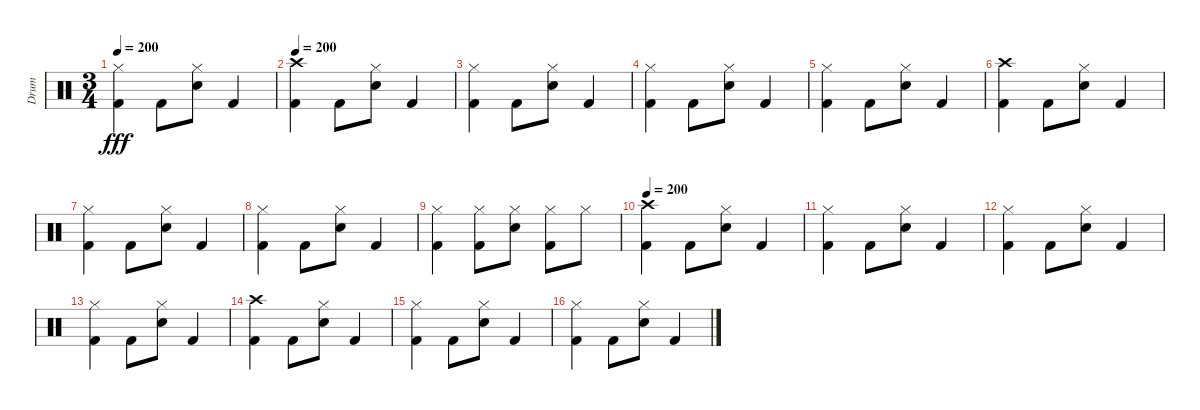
\track ("Drum" "Drum") {instrument percussion}
\staff {score}
\articulation defaults
\ts (3 4)
\tempo 200
\clef neutral
\ks c
("Hi-Hat (closed)" "Kick (hit) 2").4{dy fff} "Kick (hit) 2".8 ("Hi-Hat (closed)" "Snare (hit) 2").8 "Kick (hit) 2".4 |
\tempo 200
("Crash high (hit)" "Kick (hit) 2").4 "Kick (hit) 2".8 ("Hi-Hat (closed)" "Snare (hit) 2").8 "Kick (hit) 2".4 |
("Hi-Hat (closed)" "Kick (hit) 2").4 "Kick (hit) 2".8 ("Hi-Hat (closed)" "Snare (hit) 2").8 "Kick (hit) 2".4 |
("Hi-Hat (closed)" "Kick (hit) 2").4 "Kick (hit) 2".8 ("Hi-Hat (closed)" "Snare (hit) 2").8 "Kick (hit) 2".4 |
("Hi-Hat (closed)" "Kick (hit) 2").4 "Kick (hit) 2".8 ("Hi-Hat (closed)" "Snare (hit) 2").8 "Kick (hit) 2".4 |
("Crash high (hit)" "Kick (hit) 2").4 "Kick (hit) 2".8 ("Hi-Hat (closed)" "Snare (hit) 2").8 "Kick (hit) 2".4 |
("Hi-Hat (closed)" "Kick (hit) 2").4 "Kick (hit) 2".8 ("Hi-Hat (closed)" "Snare (hit) 2").8 "Kick (hit) 2".4 |
("Hi-Hat (closed)" "Kick (hit) 2").4 "Kick (hit) 2".8 ("Hi-Hat (closed)" "Snare (hit) 2").8 "Kick (hit) 2".4 |
("Hi-Hat (closed)" "Kick (hit) 2").4 ("Hi-Hat (closed)" "Kick (hit) 2").8 ("Hi-Hat (closed)" "Snare (hit) 2").8 ("Hi-Hat (closed)" "Kick (hit) 2").8 "Hi-Hat (closed)".8 |
\tempo 200
("Crash high (hit)" "Kick (hit) 2").4 "Kick (hit) 2".8 ("Hi-Hat (closed)" "Snare (hit) 2").8 "Kick (hit) 2".4 |
("Hi-Hat (closed)" "Kick (hit) 2").4 "Kick (hit) 2".8 ("Hi-Hat (closed)" "Snare (hit) 2").8 "Kick (hit) 2".4 |
("Hi-Hat (closed)" "Kick (hit) 2").4 "Kick (hit) 2".8 ("Hi-Hat (closed)" "Snare (hit) 2").8 "Kick (hit) 2".4 |
("Hi-Hat (closed)" "Kick (hit) 2").4 "Kick (hit) 2".8 ("Hi-Hat (closed)" "Snare (hit) 2").8 "Kick (hit) 2".4 |
("Crash high (hit)" "Kick (hit) 2").4 "Kick (hit) 2".8 ("Hi-Hat (closed)" "Snare (hit) 2").8 "Kick (hit) 2".4 |
("Hi-Hat (closed)" "Kick (hit) 2").4 "Kick (hit) 2".8 ("Hi-Hat (closed)" "Snare (hit) 2").8 "Kick (hit) 2".4 |
("Hi-Hat (closed)" "Kick (hit) 2").4 "Kick (hit) 2".8 ("Hi-Hat (closed)" "Snare (hit) 2").8 "Kick (hit) 2".4
